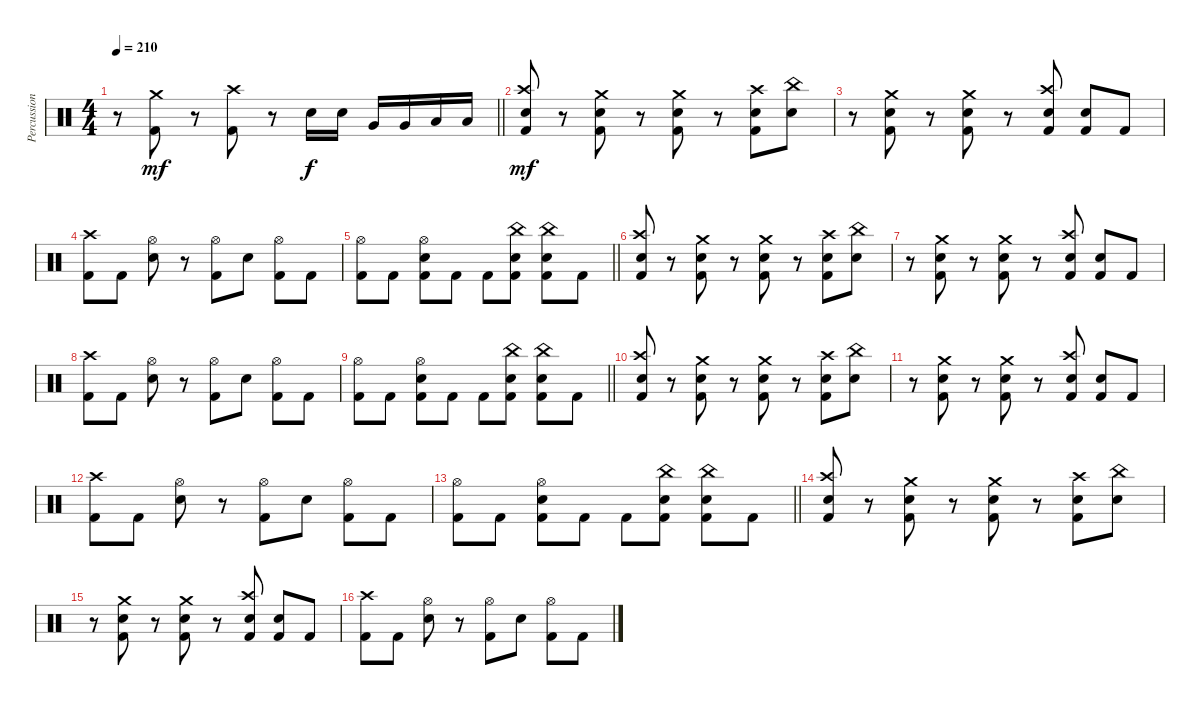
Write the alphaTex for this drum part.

\track ("Percussion" "Percussion") {instrument percussion bank 255}
\staff {score}
\articulation defaults
\ts (4 4)
\tempo 210
\clef neutral
\barLineRight lightlight
\ks c
r.8{dy mf} ("Crash medium (hit)" "Kick (hit) 2").8 r.8 ("Crash high (hit)" "Kick (hit) 2").8 r.8 "Electric Snare (hit)".16{dy f} "Electric Snare (hit)".16 "Very Low Tom (hit)".16 "Very Low Tom (hit)".16 "Low Tom (hit)".16 "Low Tom (hit)".16 |
\section ("" "")
("Crash high (hit)" "Electric Snare (hit)" "Kick (hit) 2").8{dy mf} r.8 ("Crash medium (hit)" "Electric Snare (hit)" "Kick (hit) 2").8 r.8 ("Crash medium (hit)" "Electric Snare (hit)" "Kick (hit) 2").8 r.8 ("Crash high (hit)" "Electric Snare (hit)" "Kick (hit) 2").8 ("China (hit)" "Electric Snare (hit)").8 |
r.8 ("Crash medium (hit)" "Electric Snare (hit)" "Kick (hit) 2").8 r.8 ("Crash medium (hit)" "Electric Snare (hit)" "Kick (hit) 2").8 r.8 ("Crash high (hit)" "Electric Snare (hit)" "Kick (hit) 2").8 ("Electric Snare (hit)" "Kick (hit) 2").8 "Kick (hit) 2".8 |
("Crash high (hit)" "Kick (hit) 2").8 "Kick (hit) 2".8 ("Hi-Hat (open)" "Electric Snare (hit)").8 r.8 ("Hi-Hat (open)" "Kick (hit) 2").8 "Electric Snare (hit)".8 ("Hi-Hat (open)" "Kick (hit) 2").8 "Kick (hit) 2".8 |
\barLineRight lightlight
("Hi-Hat (open)" "Kick (hit) 2").8 "Kick (hit) 2".8 ("Hi-Hat (open)" "Electric Snare (hit)" "Kick (hit) 2").8 "Kick (hit) 2".8 "Kick (hit) 2".8 ("China (hit)" "Electric Snare (hit)" "Kick (hit) 2").8 ("China (hit)" "Electric Snare (hit)" "Kick (hit) 2").8 "Kick (hit) 2".8 |
\section ("" "")
("Crash high (hit)" "Electric Snare (hit)" "Kick (hit) 2").8 r.8 ("Crash medium (hit)" "Electric Snare (hit)" "Kick (hit) 2").8 r.8 ("Crash medium (hit)" "Electric Snare (hit)" "Kick (hit) 2").8 r.8 ("Crash high (hit)" "Electric Snare (hit)" "Kick (hit) 2").8 ("China (hit)" "Electric Snare (hit)").8 |
r.8 ("Crash medium (hit)" "Electric Snare (hit)" "Kick (hit) 2").8 r.8 ("Crash medium (hit)" "Electric Snare (hit)" "Kick (hit) 2").8 r.8 ("Crash high (hit)" "Electric Snare (hit)" "Kick (hit) 2").8 ("Electric Snare (hit)" "Kick (hit) 2").8 "Kick (hit) 2".8 |
("Crash high (hit)" "Kick (hit) 2").8 "Kick (hit) 2".8 ("Hi-Hat (open)" "Electric Snare (hit)").8 r.8 ("Hi-Hat (open)" "Kick (hit) 2").8 "Electric Snare (hit)".8 ("Hi-Hat (open)" "Kick (hit) 2").8 "Kick (hit) 2".8 |
\barLineRight lightlight
("Hi-Hat (open)" "Kick (hit) 2").8 "Kick (hit) 2".8 ("Hi-Hat (open)" "Electric Snare (hit)" "Kick (hit) 2").8 "Kick (hit) 2".8 "Kick (hit) 2".8 ("China (hit)" "Electric Snare (hit)" "Kick (hit) 2").8 ("China (hit)" "Electric Snare (hit)" "Kick (hit) 2").8 "Kick (hit) 2".8 |
\section ("" "")
("Crash high (hit)" "Electric Snare (hit)" "Kick (hit) 2").8 r.8 ("Crash medium (hit)" "Electric Snare (hit)" "Kick (hit) 2").8 r.8 ("Crash medium (hit)" "Electric Snare (hit)" "Kick (hit) 2").8 r.8 ("Crash high (hit)" "Electric Snare (hit)" "Kick (hit) 2").8 ("China (hit)" "Electric Snare (hit)").8 |
r.8 ("Crash medium (hit)" "Electric Snare (hit)" "Kick (hit) 2").8 r.8 ("Crash medium (hit)" "Electric Snare (hit)" "Kick (hit) 2").8 r.8 ("Crash high (hit)" "Electric Snare (hit)" "Kick (hit) 2").8 ("Electric Snare (hit)" "Kick (hit) 2").8 "Kick (hit) 2".8 |
("Crash high (hit)" "Kick (hit) 2").8 "Kick (hit) 2".8 ("Hi-Hat (open)" "Electric Snare (hit)").8 r.8 ("Hi-Hat (open)" "Kick (hit) 2").8 "Electric Snare (hit)".8 ("Hi-Hat (open)" "Kick (hit) 2").8 "Kick (hit) 2".8 |
\barLineRight lightlight
("Hi-Hat (open)" "Kick (hit) 2").8 "Kick (hit) 2".8 ("Hi-Hat (open)" "Electric Snare (hit)" "Kick (hit) 2").8 "Kick (hit) 2".8 "Kick (hit) 2".8 ("China (hit)" "Electric Snare (hit)" "Kick (hit) 2").8 ("China (hit)" "Electric Snare (hit)" "Kick (hit) 2").8 "Kick (hit) 2".8 |
\section ("" "")
("Crash high (hit)" "Electric Snare (hit)" "Kick (hit) 2").8 r.8 ("Crash medium (hit)" "Electric Snare (hit)" "Kick (hit) 2").8 r.8 ("Crash medium (hit)" "Electric Snare (hit)" "Kick (hit) 2").8 r.8 ("Crash high (hit)" "Electric Snare (hit)" "Kick (hit) 2").8 ("China (hit)" "Electric Snare (hit)").8 |
r.8 ("Crash medium (hit)" "Electric Snare (hit)" "Kick (hit) 2").8 r.8 ("Crash medium (hit)" "Electric Snare (hit)" "Kick (hit) 2").8 r.8 ("Crash high (hit)" "Electric Snare (hit)" "Kick (hit) 2").8 ("Electric Snare (hit)" "Kick (hit) 2").8 "Kick (hit) 2".8 |
("Crash high (hit)" "Kick (hit) 2").8 "Kick (hit) 2".8 ("Hi-Hat (open)" "Electric Snare (hit)").8 r.8 ("Hi-Hat (open)" "Kick (hit) 2").8 "Electric Snare (hit)".8 ("Hi-Hat (open)" "Kick (hit) 2").8 "Kick (hit) 2".8
